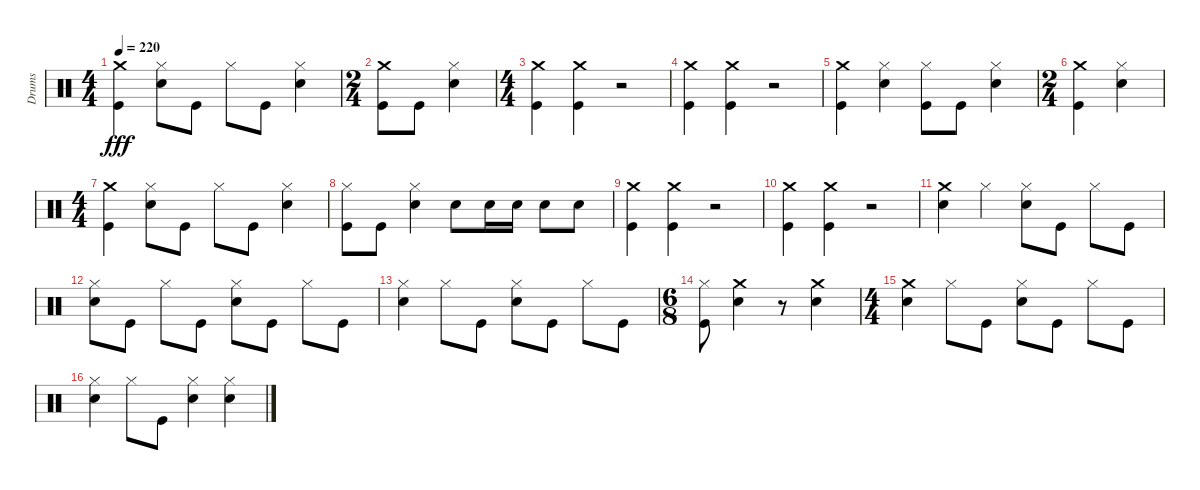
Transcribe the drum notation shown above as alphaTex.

\track ("Drums" "Drums") {instrument percussion}
\staff {score}
\articulation defaults
\ts (4 4)
\tempo 220
\clef neutral
\ks c
("Kick (hit)" "Crash medium (hit)").4{dy fff} ("Snare (hit) 2" "Hi-Hat (closed)").8 "Kick (hit)".8 "Hi-Hat (closed)".8 "Kick (hit)".8 ("Hi-Hat (closed)" "Snare (hit) 2").4 |
\ts (2 4)
("Kick (hit)" "Crash medium (hit)").8 "Kick (hit)".8 ("Snare (hit) 2" "Hi-Hat (closed)").4 |
\ts (4 4)
("Kick (hit)" "Crash medium (hit)").4 ("Kick (hit)" "Crash medium (hit)").4 r.2 |
("Kick (hit)" "Crash medium (hit)").4 ("Crash medium (hit)" "Kick (hit)").4 r.2 |
("Kick (hit)" "Crash medium (hit)").4 ("Snare (hit) 2" "Hi-Hat (closed)").4 ("Kick (hit)" "Hi-Hat (closed)").8 "Kick (hit)".8 ("Snare (hit) 2" "Hi-Hat (closed)").4 |
\ts (2 4)
("Crash medium (hit)" "Kick (hit)").4 ("Snare (hit) 2" "Hi-Hat (closed)").4 |
\ts (4 4)
("Kick (hit)" "Crash medium (hit)").4 ("Snare (hit) 2" "Hi-Hat (closed)").8 "Kick (hit)".8 "Hi-Hat (closed)".8 "Kick (hit)".8 ("Snare (hit) 2" "Hi-Hat (closed)").4 |
("Hi-Hat (closed)" "Kick (hit)").8 "Kick (hit)".8 ("Hi-Hat (closed)" "Snare (hit) 2").4 "Snare (hit) 2".8 "Snare (hit) 2".16 "Snare (hit) 2".16 "Snare (hit) 2".8 "Snare (hit) 2".8 |
("Kick (hit)" "Crash medium (hit)").4 ("Kick (hit)" "Crash medium (hit)").4 r.2 |
("Crash medium (hit)" "Kick (hit)").4 ("Kick (hit)" "Crash medium (hit)").4 r.2 |
("Snare (hit) 2" "Crash medium (hit)").4 "Hi-Hat (closed)".4 ("Snare (hit) 2" "Hi-Hat (closed)").8 "Kick (hit)".8 "Hi-Hat (closed)".8 "Kick (hit)".8 |
("Snare (hit) 2" "Hi-Hat (closed)").8 "Kick (hit)".8 "Hi-Hat (closed)".8 "Kick (hit)".8 ("Snare (hit) 2" "Hi-Hat (closed)").8 "Kick (hit)".8 "Hi-Hat (closed)".8 "Kick (hit)".8 |
("Snare (hit) 2" "Hi-Hat (closed)").4 "Hi-Hat (closed)".8 "Kick (hit)".8 ("Snare (hit) 2" "Hi-Hat (closed)").8 "Kick (hit)".8 "Hi-Hat (closed)".8 "Kick (hit)".8 |
\ts (6 8)
("Hi-Hat (closed)" "Kick (hit)").8 ("Snare (hit) 2" "Crash medium (hit)").4 r.8 ("Snare (hit) 2" "Crash medium (hit)").4 |
\ts (4 4)
("Crash medium (hit)" "Snare (hit) 2").4 "Hi-Hat (closed)".8 "Kick (hit)".8 ("Hi-Hat (closed)" "Snare (hit) 2").8 "Kick (hit)".8 "Hi-Hat (closed)".8 "Kick (hit)".8 |
("Snare (hit) 2" "Hi-Hat (closed)").4 "Hi-Hat (closed)".8 "Kick (hit)".8 ("Hi-Hat (closed)" "Snare (hit) 2").4 ("Snare (hit) 2" "Hi-Hat (closed)").4
